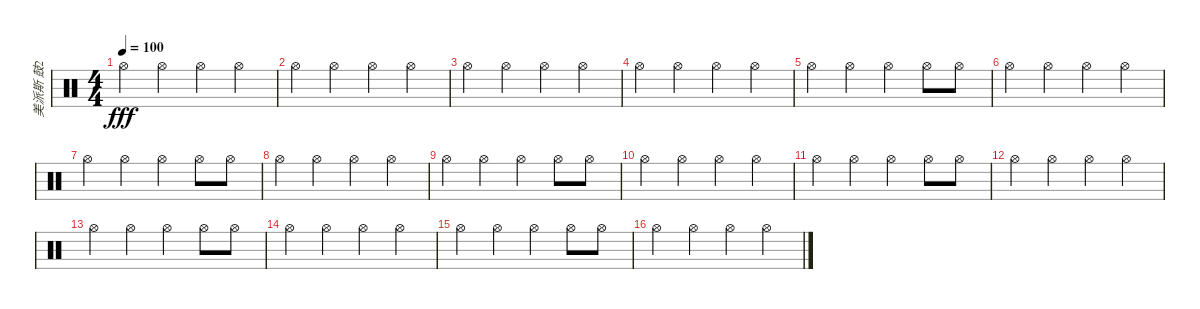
\track ("美派斯 鼓2" "美派斯 鼓2") {instrument percussion}
\staff {score}
\articulation defaults
\ts (4 4)
\tempo 100
\clef neutral
\ks c "Hi-Hat (open)".4{dy fff} "Hi-Hat (open)".4 "Hi-Hat (open)".4 "Hi-Hat (open)".4
|
"Hi-Hat (open)".4 "Hi-Hat (open)".4 "Hi-Hat (open)".4 "Hi-Hat (open)".4 |
"Hi-Hat (open)".4 "Hi-Hat (open)".4 "Hi-Hat (open)".4 "Hi-Hat (open)".4 |
"Hi-Hat (open)".4 "Hi-Hat (open)".4 "Hi-Hat (open)".4 "Hi-Hat (open)".4 |
"Hi-Hat (open)".4 "Hi-Hat (open)".4 "Hi-Hat (open)".4 "Hi-Hat (open)".8 "Hi-Hat (open)".8 |
"Hi-Hat (open)".4 "Hi-Hat (open)".4 "Hi-Hat (open)".4 "Hi-Hat (open)".4 |
"Hi-Hat (open)".4 "Hi-Hat (open)".4 "Hi-Hat (open)".4 "Hi-Hat (open)".8 "Hi-Hat (open)".8 |
"Hi-Hat (open)".4 "Hi-Hat (open)".4 "Hi-Hat (open)".4 "Hi-Hat (open)".4 |
"Hi-Hat (open)".4 "Hi-Hat (open)".4 "Hi-Hat (open)".4 "Hi-Hat (open)".8 "Hi-Hat (open)".8 |
"Hi-Hat (open)".4 "Hi-Hat (open)".4 "Hi-Hat (open)".4 "Hi-Hat (open)".4 |
"Hi-Hat (open)".4 "Hi-Hat (open)".4 "Hi-Hat (open)".4 "Hi-Hat (open)".8 "Hi-Hat (open)".8 |
"Hi-Hat (open)".4 "Hi-Hat (open)".4 "Hi-Hat (open)".4 "Hi-Hat (open)".4 |
"Hi-Hat (open)".4 "Hi-Hat (open)".4 "Hi-Hat (open)".4 "Hi-Hat (open)".8 "Hi-Hat (open)".8 |
"Hi-Hat (open)".4 "Hi-Hat (open)".4 "Hi-Hat (open)".4 "Hi-Hat (open)".4 |
"Hi-Hat (open)".4 "Hi-Hat (open)".4 "Hi-Hat (open)".4 "Hi-Hat (open)".8 "Hi-Hat (open)".8 |
"Hi-Hat (open)".4 "Hi-Hat (open)".4 "Hi-Hat (open)".4 "Hi-Hat (open)".4
